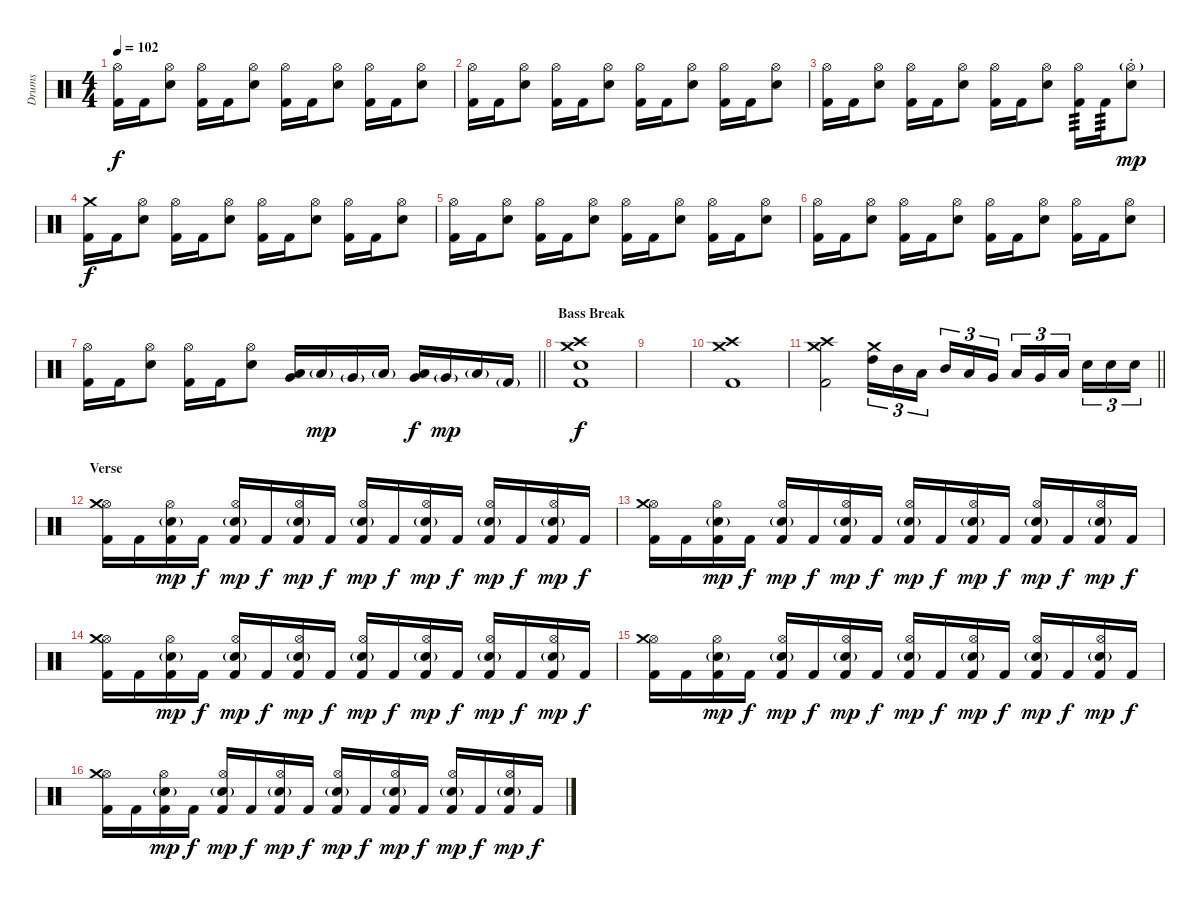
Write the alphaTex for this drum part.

\track ("Drums" "Drums") {instrument percussion}
\staff {score}
\articulation defaults
\ts (4 4)
\tempo 102
\clef neutral
\ks c
("Kick (hit) 2" "Hi-Hat (open)").16{dy f} "Kick (hit) 2".16 ("Snare (hit) 2" "Hi-Hat (open)").8 ("Kick (hit) 2" "Hi-Hat (open)").16 "Kick (hit) 2".16 ("Snare (hit) 2" "Hi-Hat (open)").8 ("Kick (hit) 2" "Hi-Hat (open)").16 "Kick (hit) 2".16 ("Snare (hit) 2" "Hi-Hat (open)").8 ("Kick (hit) 2" "Hi-Hat (open)").16 "Kick (hit) 2".16 ("Snare (hit) 2" "Hi-Hat (open)").8 |
("Kick (hit) 2" "Hi-Hat (open)").16 "Kick (hit) 2".16 ("Snare (hit) 2" "Hi-Hat (open)").8 ("Kick (hit) 2" "Hi-Hat (open)").16 "Kick (hit) 2".16 ("Snare (hit) 2" "Hi-Hat (open)").8 ("Kick (hit) 2" "Hi-Hat (open)").16 "Kick (hit) 2".16 ("Snare (hit) 2" "Hi-Hat (open)").8 ("Kick (hit) 2" "Hi-Hat (open)").16 "Kick (hit) 2".16 ("Snare (hit) 2" "Hi-Hat (open)").8 |
("Kick (hit) 2" "Hi-Hat (open)").16 "Kick (hit) 2".16 ("Snare (hit) 2" "Hi-Hat (open)").8 ("Kick (hit) 2" "Hi-Hat (open)").16 "Kick (hit) 2".16 ("Snare (hit) 2" "Hi-Hat (open)").8 ("Kick (hit) 2" "Hi-Hat (open)").16 "Kick (hit) 2".16 ("Snare (hit) 2" "Hi-Hat (open)").8 ("Kick (hit) 2" "Hi-Hat (open)").16{tp 3} "Kick (hit) 2".16{tp 3} ("Snare (hit) 2" "Hi-Hat (open)"{g st}).8{dy mp} |
("Kick (hit) 2" "Crash medium (hit)").16{dy f} "Kick (hit) 2".16 ("Snare (hit) 2" "Hi-Hat (open)").8 ("Kick (hit) 2" "Hi-Hat (open)").16 "Kick (hit) 2".16 ("Snare (hit) 2" "Hi-Hat (open)").8 ("Kick (hit) 2" "Hi-Hat (open)").16 "Kick (hit) 2".16 ("Snare (hit) 2" "Hi-Hat (open)").8 ("Kick (hit) 2" "Hi-Hat (open)").16 "Kick (hit) 2".16 ("Snare (hit) 2" "Hi-Hat (open)").8 |
("Kick (hit) 2" "Hi-Hat (open)").16 "Kick (hit) 2".16 ("Snare (hit) 2" "Hi-Hat (open)").8 ("Kick (hit) 2" "Hi-Hat (open)").16 "Kick (hit) 2".16 ("Snare (hit) 2" "Hi-Hat (open)").8 ("Kick (hit) 2" "Hi-Hat (open)").16 "Kick (hit) 2".16 ("Snare (hit) 2" "Hi-Hat (open)").8 ("Kick (hit) 2" "Hi-Hat (open)").16 "Kick (hit) 2".16 ("Snare (hit) 2" "Hi-Hat (open)").8 |
("Kick (hit) 2" "Hi-Hat (open)").16 "Kick (hit) 2".16 ("Snare (hit) 2" "Hi-Hat (open)").8 ("Kick (hit) 2" "Hi-Hat (open)").16 "Kick (hit) 2".16 ("Snare (hit) 2" "Hi-Hat (open)").8 ("Kick (hit) 2" "Hi-Hat (open)").16 "Kick (hit) 2".16 ("Snare (hit) 2" "Hi-Hat (open)").8 ("Kick (hit) 2" "Hi-Hat (open)").16 "Kick (hit) 2".16 ("Snare (hit) 2" "Hi-Hat (open)").8 |
\barLineRight lightlight
("Kick (hit) 2" "Hi-Hat (open)").16 "Kick (hit) 2".16 ("Snare (hit) 2" "Hi-Hat (open)").8 ("Kick (hit) 2" "Hi-Hat (open)").16 "Kick (hit) 2".16 ("Snare (hit) 2" "Hi-Hat (open)").8 ("Low Tom (hit)" "Very Low Tom (hit)").16 "Low Tom (hit)"{g}.16{dy mp} "Very Low Tom (hit)"{g}.16 "Low Floor Tom (hit)"{g}.16 ("Very Low Tom (hit)" "Low Floor Tom (hit)").16{dy f} "Very Low Tom (hit)"{g}.16{dy mp} "Low Floor Tom (hit)"{g}.16 "Kick (hit) 2"{g}.16 |
\section ("" "Bass Break")
("Kick (hit) 2" "Snare (hit) 2" "Crash high (hit)" "Crash medium (hit)").1{dy f} |
|
("Kick (hit) 2" "Crash high (hit)" "Crash medium (hit)").1 |
\barLineRight lightlight
("Kick (hit) 2" "Crash high (hit)" "Crash medium (hit)").2 ("High Tom (hit)" "Crash medium (hit)").16{tu (3 2)} "Mid Tom (hit)".16{tu (3 2)} "Low Tom (hit)".16{tu (3 2)} "Mid Tom (hit)".16{tu (3 2)} "Low Tom (hit)".16{tu (3 2)} "Very Low Tom (hit)".16{tu (3 2)} "Low Tom (hit)".16{tu (3 2)} "Very Low Tom (hit)".16{tu (3 2)} "Low Floor Tom (hit)".16{tu (3 2)} "Snare (hit) 2".16{tu (3 2)} "Snare (hit) 2".16{tu (3 2)} "Snare (hit) 2".16{tu (3 2)} |
\section ("" "Verse")
("Kick (hit) 2" "Hi-Hat (open)" "Crash medium (hit)").16 "Kick (hit) 2".16 ("Kick (hit) 2" "Snare (hit) 2"{g} "Hi-Hat (open)").16{dy mp} "Kick (hit) 2".16{dy f} ("Kick (hit) 2" "Snare (hit) 2"{g} "Hi-Hat (open)").16{dy mp} "Kick (hit) 2".16{dy f} ("Kick (hit) 2" "Snare (hit) 2"{g} "Hi-Hat (open)").16{dy mp} "Kick (hit) 2".16{dy f} ("Kick (hit) 2" "Snare (hit) 2"{g} "Hi-Hat (open)").16{dy mp} "Kick (hit) 2".16{dy f} ("Kick (hit) 2" "Snare (hit) 2"{g} "Hi-Hat (open)").16{dy mp} "Kick (hit) 2".16{dy f} ("Kick (hit) 2" "Snare (hit) 2"{g} "Hi-Hat (open)").16{dy mp} "Kick (hit) 2".16{dy f} ("Kick (hit) 2" "Snare (hit) 2"{g} "Hi-Hat (open)").16{dy mp} "Kick (hit) 2".16{dy f} |
("Kick (hit) 2" "Hi-Hat (open)" "Crash medium (hit)").16 "Kick (hit) 2".16 ("Kick (hit) 2" "Snare (hit) 2"{g} "Hi-Hat (open)").16{dy mp} "Kick (hit) 2".16{dy f} ("Kick (hit) 2" "Snare (hit) 2"{g} "Hi-Hat (open)").16{dy mp} "Kick (hit) 2".16{dy f} ("Kick (hit) 2" "Snare (hit) 2"{g} "Hi-Hat (open)").16{dy mp} "Kick (hit) 2".16{dy f} ("Kick (hit) 2" "Snare (hit) 2"{g} "Hi-Hat (open)").16{dy mp} "Kick (hit) 2".16{dy f} ("Kick (hit) 2" "Snare (hit) 2"{g} "Hi-Hat (open)").16{dy mp} "Kick (hit) 2".16{dy f} ("Kick (hit) 2" "Snare (hit) 2"{g} "Hi-Hat (open)").16{dy mp} "Kick (hit) 2".16{dy f} ("Kick (hit) 2" "Snare (hit) 2"{g} "Hi-Hat (open)").16{dy mp} "Kick (hit) 2".16{dy f} |
("Kick (hit) 2" "Hi-Hat (open)" "Crash medium (hit)").16 "Kick (hit) 2".16 ("Kick (hit) 2" "Snare (hit) 2"{g} "Hi-Hat (open)").16{dy mp} "Kick (hit) 2".16{dy f} ("Kick (hit) 2" "Snare (hit) 2"{g} "Hi-Hat (open)").16{dy mp} "Kick (hit) 2".16{dy f} ("Kick (hit) 2" "Snare (hit) 2"{g} "Hi-Hat (open)").16{dy mp} "Kick (hit) 2".16{dy f} ("Kick (hit) 2" "Snare (hit) 2"{g} "Hi-Hat (open)").16{dy mp} "Kick (hit) 2".16{dy f} ("Kick (hit) 2" "Snare (hit) 2"{g} "Hi-Hat (open)").16{dy mp} "Kick (hit) 2".16{dy f} ("Kick (hit) 2" "Snare (hit) 2"{g} "Hi-Hat (open)").16{dy mp} "Kick (hit) 2".16{dy f} ("Kick (hit) 2" "Snare (hit) 2"{g} "Hi-Hat (open)").16{dy mp} "Kick (hit) 2".16{dy f} |
("Kick (hit) 2" "Hi-Hat (open)" "Crash medium (hit)").16 "Kick (hit) 2".16 ("Kick (hit) 2" "Snare (hit) 2"{g} "Hi-Hat (open)").16{dy mp} "Kick (hit) 2".16{dy f} ("Kick (hit) 2" "Snare (hit) 2"{g} "Hi-Hat (open)").16{dy mp} "Kick (hit) 2".16{dy f} ("Kick (hit) 2" "Snare (hit) 2"{g} "Hi-Hat (open)").16{dy mp} "Kick (hit) 2".16{dy f} ("Kick (hit) 2" "Snare (hit) 2"{g} "Hi-Hat (open)").16{dy mp} "Kick (hit) 2".16{dy f} ("Kick (hit) 2" "Snare (hit) 2"{g} "Hi-Hat (open)").16{dy mp} "Kick (hit) 2".16{dy f} ("Kick (hit) 2" "Snare (hit) 2"{g} "Hi-Hat (open)").16{dy mp} "Kick (hit) 2".16{dy f} ("Kick (hit) 2" "Snare (hit) 2"{g} "Hi-Hat (open)").16{dy mp} "Kick (hit) 2".16{dy f} |
("Kick (hit) 2" "Hi-Hat (open)" "Crash medium (hit)").16 "Kick (hit) 2".16 ("Kick (hit) 2" "Snare (hit) 2"{g} "Hi-Hat (open)").16{dy mp} "Kick (hit) 2".16{dy f} ("Kick (hit) 2" "Snare (hit) 2"{g} "Hi-Hat (open)").16{dy mp} "Kick (hit) 2".16{dy f} ("Kick (hit) 2" "Snare (hit) 2"{g} "Hi-Hat (open)").16{dy mp} "Kick (hit) 2".16{dy f} ("Kick (hit) 2" "Snare (hit) 2"{g} "Hi-Hat (open)").16{dy mp} "Kick (hit) 2".16{dy f} ("Kick (hit) 2" "Snare (hit) 2"{g} "Hi-Hat (open)").16{dy mp} "Kick (hit) 2".16{dy f} ("Kick (hit) 2" "Snare (hit) 2"{g} "Hi-Hat (open)").16{dy mp} "Kick (hit) 2".16{dy f} ("Kick (hit) 2" "Snare (hit) 2"{g} "Hi-Hat (open)").16{dy mp} "Kick (hit) 2".16{dy f}
